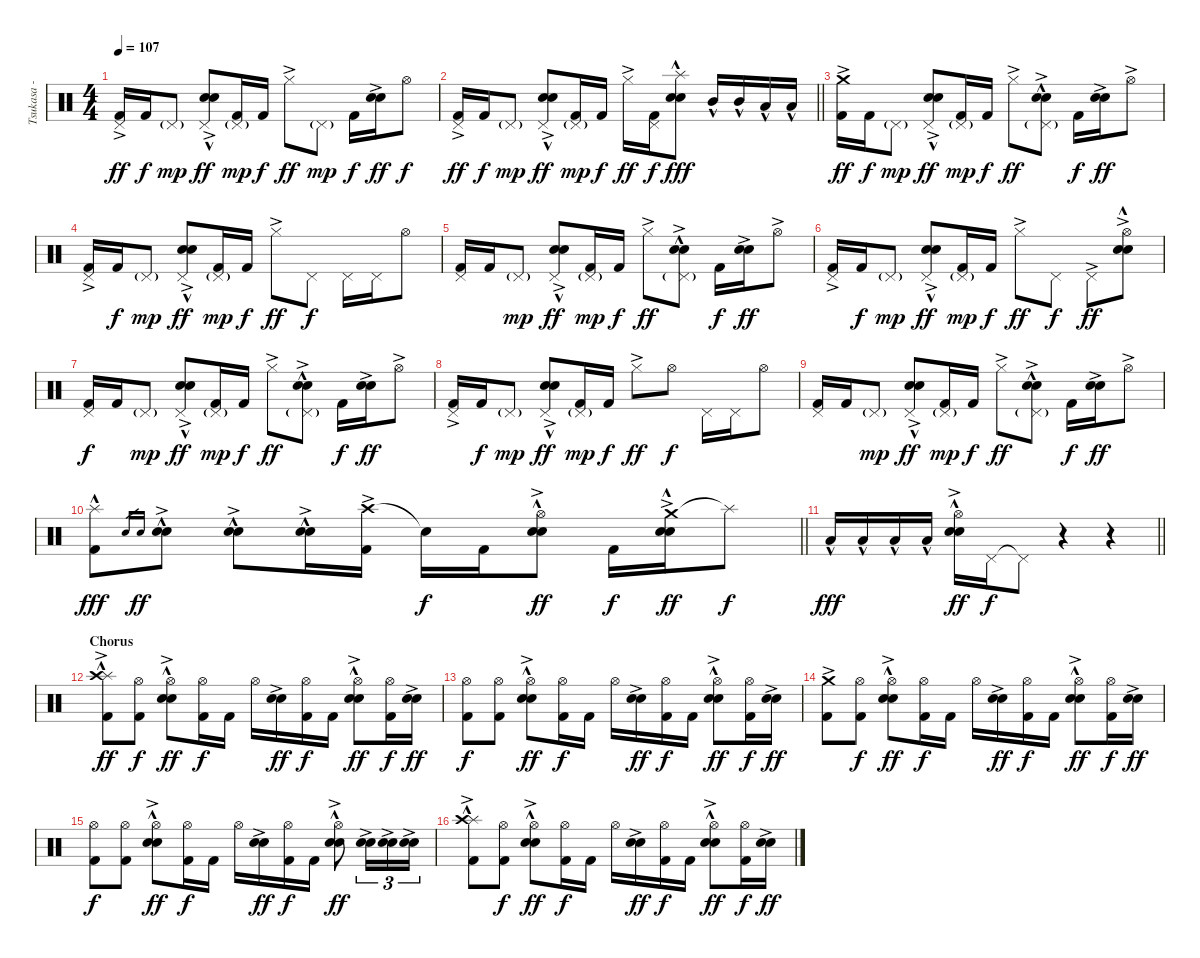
\track ("Tsukasa - Drums" "Tsukasa - ") {instrument percussion}
\staff {score}
\articulation defaults
\ts (4 4)
\tempo 107
\clef neutral
\ks c
("Pedal Hi-Hat (hit)"{ac} "Kick (hit) 2").16{dy ff} "Kick (hit) 2".16{dy f} "Pedal Hi-Hat (hit)"{g}.8{dy mp} ("Pedal Hi-Hat (hit)"{ac} "Electric Snare (hit)"{hac} "Snare (hit) 2"{ac}).8{dy ff} ("Pedal Hi-Hat (hit)"{g} "Kick (hit) 2").16{dy mp} "Kick (hit) 2".16{dy f} "Hi-Hat (closed)"{ac}.8{dy ff} "Pedal Hi-Hat (hit)"{g}.8{dy mp} "Kick (hit) 2".16{dy f} ("Electric Snare (hit)"{ac} "Snare (hit) 2"{ac}).16{dy ff} "Hi-Hat (open)".8{dy f} |
\barLineRight lightlight
("Pedal Hi-Hat (hit)"{ac} "Kick (hit) 2").16{dy ff} "Kick (hit) 2".16{dy f} "Pedal Hi-Hat (hit)"{g}.8{dy mp} ("Pedal Hi-Hat (hit)"{ac} "Electric Snare (hit)"{hac} "Snare (hit) 2"{ac}).8{dy ff} ("Pedal Hi-Hat (hit)"{g} "Kick (hit) 2").16{dy mp} "Kick (hit) 2".16{dy f} "Hi-Hat (closed)"{ac}.16{dy ff} ("Pedal Hi-Hat (hit)" "Kick (hit) 2").16{dy f} ("Splash (hit)"{hac} "Electric Snare (hit)" "Snare (hit) 2").8{dy fff} "Mid Tom (hit)"{hac}.16 "Mid Tom (hit)"{hac}.16 "Low Tom (hit)"{hac}.16 "Low Tom (hit)"{hac}.16 |
\section ("" "")
("Crash medium (hit)"{ac} "Kick (hit) 2").16{dy ff} "Kick (hit) 2".16{dy f} "Pedal Hi-Hat (hit)"{g}.8{dy mp} ("Pedal Hi-Hat (hit)"{ac} "Electric Snare (hit)"{hac} "Snare (hit) 2"{ac}).8{dy ff} ("Pedal Hi-Hat (hit)"{g} "Kick (hit) 2").16{dy mp} "Kick (hit) 2".16{dy f} "Hi-Hat (closed)"{ac}.8{dy ff} ("Pedal Hi-Hat (hit)"{g} "Electric Snare (hit)"{hac} "Snare (hit) 2"{ac}).8 "Kick (hit) 2".16{dy f} ("Electric Snare (hit)"{ac} "Snare (hit) 2"{ac}).16{dy ff} "Hi-Hat (open)"{ac}.8 |
("Pedal Hi-Hat (hit)"{ac} "Kick (hit) 2").16 "Kick (hit) 2".16{dy f} "Pedal Hi-Hat (hit)"{g}.8{dy mp} ("Pedal Hi-Hat (hit)"{ac} "Electric Snare (hit)"{hac} "Snare (hit) 2"{ac}).8{dy ff} ("Pedal Hi-Hat (hit)"{g} "Kick (hit) 2").16{dy mp} "Kick (hit) 2".16{dy f} "Hi-Hat (closed)"{ac}.8{dy ff} "Pedal Hi-Hat (hit)".8{dy f} "Pedal Hi-Hat (hit)".16 "Pedal Hi-Hat (hit)".16 "Hi-Hat (open)".8 |
("Pedal Hi-Hat (hit)" "Kick (hit) 2").16 "Kick (hit) 2".16 "Pedal Hi-Hat (hit)"{g}.8{dy mp} ("Pedal Hi-Hat (hit)"{ac} "Electric Snare (hit)"{hac} "Snare (hit) 2"{ac}).8{dy ff} ("Pedal Hi-Hat (hit)"{g} "Kick (hit) 2").16{dy mp} "Kick (hit) 2".16{dy f} "Hi-Hat (closed)"{ac}.8{dy ff} ("Pedal Hi-Hat (hit)"{g} "Electric Snare (hit)"{hac} "Snare (hit) 2"{ac}).8 "Kick (hit) 2".16{dy f} ("Electric Snare (hit)"{ac} "Snare (hit) 2"{ac}).16{dy ff} "Hi-Hat (open)"{ac}.8 |
("Pedal Hi-Hat (hit)"{ac} "Kick (hit) 2").16 "Kick (hit) 2".16{dy f} "Pedal Hi-Hat (hit)"{g}.8{dy mp} ("Pedal Hi-Hat (hit)"{ac} "Electric Snare (hit)"{hac} "Snare (hit) 2"{ac}).8{dy ff} ("Pedal Hi-Hat (hit)"{g} "Kick (hit) 2").16{dy mp} "Kick (hit) 2".16{dy f} "Hi-Hat (closed)"{ac}.8{dy ff} "Pedal Hi-Hat (hit)".8{dy f} "Pedal Hi-Hat (hit)"{ac}.8{dy ff} ("Hi-Hat (open)"{ac} "Electric Snare (hit)"{hac} "Snare (hit) 2"{ac}).8 |
("Pedal Hi-Hat (hit)" "Kick (hit) 2").16{dy f} "Kick (hit) 2".16 "Pedal Hi-Hat (hit)"{g}.8{dy mp} ("Pedal Hi-Hat (hit)"{ac} "Electric Snare (hit)"{hac} "Snare (hit) 2"{ac}).8{dy ff} ("Pedal Hi-Hat (hit)"{g} "Kick (hit) 2").16{dy mp} "Kick (hit) 2".16{dy f} "Hi-Hat (closed)"{ac}.8{dy ff} ("Pedal Hi-Hat (hit)"{g} "Electric Snare (hit)"{hac} "Snare (hit) 2"{ac}).8 "Kick (hit) 2".16{dy f} ("Electric Snare (hit)"{ac} "Snare (hit) 2"{ac}).16{dy ff} "Hi-Hat (open)"{ac}.8 |
("Pedal Hi-Hat (hit)"{ac} "Kick (hit) 2").16 "Kick (hit) 2".16{dy f} "Pedal Hi-Hat (hit)"{g}.8{dy mp} ("Pedal Hi-Hat (hit)"{ac} "Electric Snare (hit)"{hac} "Snare (hit) 2"{ac}).8{dy ff} ("Pedal Hi-Hat (hit)"{g} "Kick (hit) 2").16{dy mp} "Kick (hit) 2".16{dy f} "Hi-Hat (closed)"{ac}.8{dy ff} "Hi-Hat (open)".8{dy f} "Pedal Hi-Hat (hit)".16 "Pedal Hi-Hat (hit)".16 "Hi-Hat (open)".8 |
("Pedal Hi-Hat (hit)" "Kick (hit) 2").16 "Kick (hit) 2".16 "Pedal Hi-Hat (hit)"{g}.8{dy mp} ("Pedal Hi-Hat (hit)"{ac} "Electric Snare (hit)"{hac} "Snare (hit) 2"{ac}).8{dy ff} ("Pedal Hi-Hat (hit)"{g} "Kick (hit) 2").16{dy mp} "Kick (hit) 2".16{dy f} "Hi-Hat (closed)"{ac}.8{dy ff} ("Pedal Hi-Hat (hit)"{g} "Electric Snare (hit)"{hac} "Snare (hit) 2"{ac}).8 "Kick (hit) 2".16{dy f} ("Electric Snare (hit)"{ac} "Snare (hit) 2"{ac}).16{dy ff} "Hi-Hat (open)"{ac}.8 |
\barLineRight lightlight
("Splash (hit)"{hac} "Kick (hit) 2").8{dy fff} "Electric Snare (hit)".16{gr} "Snare (hit) 2".16{gr dy ff} ("Electric Snare (hit)"{hac} "Snare (hit) 2"{ac}).8 ("Electric Snare (hit)"{hac} "Snare (hit) 2"{ac}).8 ("Electric Snare (hit)"{hac} "Snare (hit) 2"{ac}).16 ("Crash high (hit)"{ac} "Kick (hit) 2").16 "Snare (hit)"{t}.16{dy f} "Kick (hit) 2".16 ("Hi-Hat (open)" "Electric Snare (hit)"{hac} "Snare (hit) 2"{ac}).8{dy ff} "Kick (hit) 2".16{dy f} ("Crash medium (hit)"{ac} "Electric Snare (hit)"{hac} "Snare (hit) 2"{ac}).16{dy ff} "Splash (hit)"{t}.8{dy f} |
\barLineRight lightlight "Low Tom (hit)"{hac}.16{dy fff} "Low Tom (hit)"{hac}.16 "Low Floor Tom (hit)"{hac}.16 "Low Floor Tom (hit)"{hac}.16
("Hi-Hat (open)" "Electric Snare (hit)"{hac} "Snare (hit) 2"{ac}).16{dy ff} "Pedal Hi-Hat (hit)".16{dy f} "Pedal Hi-Hat (hit)"{t}.8 r.4 r.4 |
\section ("" "Chorus")
("Splash (hit)"{hac} "Crash high (hit)"{ac} "Kick (hit) 2").8{dy ff} ("Hi-Hat (open)" "Kick (hit) 2").8{dy f} ("Hi-Hat (open)" "Electric Snare (hit)"{hac} "Snare (hit) 2"{ac}).8{dy ff} ("Hi-Hat (open)" "Kick (hit) 2").16{dy f} "Kick (hit) 2".16 "Hi-Hat (open)".16 ("Electric Snare (hit)"{ac} "Snare (hit) 2").16{dy ff} ("Hi-Hat (open)" "Kick (hit) 2").16{dy f} "Kick (hit) 2".16 ("Hi-Hat (open)" "Electric Snare (hit)"{hac} "Snare (hit) 2"{ac}).8{dy ff} ("Hi-Hat (open)" "Kick (hit) 2").16{dy f} ("Electric Snare (hit)"{ac} "Snare (hit) 2").16{dy ff} |
("Hi-Hat (open)" "Kick (hit) 2").8{dy f} ("Hi-Hat (open)" "Kick (hit) 2").8 ("Hi-Hat (open)" "Electric Snare (hit)"{hac} "Snare (hit) 2"{ac}).8{dy ff} ("Hi-Hat (open)" "Kick (hit) 2").16{dy f} "Kick (hit) 2".16 "Hi-Hat (open)".16 ("Electric Snare (hit)"{ac} "Snare (hit) 2").16{dy ff} ("Hi-Hat (open)" "Kick (hit) 2").16{dy f} "Kick (hit) 2".16 ("Hi-Hat (open)" "Electric Snare (hit)"{hac} "Snare (hit) 2"{ac}).8{dy ff} ("Hi-Hat (open)" "Kick (hit) 2").16{dy f} ("Electric Snare (hit)"{ac} "Snare (hit) 2").16{dy ff} |
("Crash medium (hit)"{ac} "Kick (hit) 2").8 ("Hi-Hat (open)" "Kick (hit) 2").8{dy f} ("Hi-Hat (open)" "Electric Snare (hit)"{hac} "Snare (hit) 2"{ac}).8{dy ff} ("Hi-Hat (open)" "Kick (hit) 2").16{dy f} "Kick (hit) 2".16 "Hi-Hat (open)".16 ("Electric Snare (hit)"{ac} "Snare (hit) 2").16{dy ff} ("Hi-Hat (open)" "Kick (hit) 2").16{dy f} "Kick (hit) 2".16 ("Hi-Hat (open)" "Electric Snare (hit)"{hac} "Snare (hit) 2"{ac}).8{dy ff} ("Hi-Hat (open)" "Kick (hit) 2").16{dy f} ("Electric Snare (hit)"{ac} "Snare (hit) 2").16{dy ff} |
("Hi-Hat (open)" "Kick (hit) 2").8{dy f} ("Hi-Hat (open)" "Kick (hit) 2").8 ("Hi-Hat (open)" "Electric Snare (hit)"{hac} "Snare (hit) 2"{ac}).8{dy ff} ("Hi-Hat (open)" "Kick (hit) 2").16{dy f} "Kick (hit) 2".16 "Hi-Hat (open)".16 ("Electric Snare (hit)"{ac} "Snare (hit) 2").16{dy ff} ("Hi-Hat (open)" "Kick (hit) 2").16{dy f} "Kick (hit) 2".16 ("Hi-Hat (open)" "Electric Snare (hit)"{hac} "Snare (hit) 2"{ac}).8{dy ff} ("Electric Snare (hit)"{ac} "Snare (hit) 2"{ac}).16{tu (3 2)} ("Electric Snare (hit)"{ac} "Snare (hit) 2"{ac}).16{tu (3 2)} ("Electric Snare (hit)"{ac} "Snare (hit) 2"{ac}).16{tu (3 2)} |
("Splash (hit)"{hac} "Crash high (hit)"{ac} "Kick (hit) 2").8 ("Hi-Hat (open)" "Kick (hit) 2").8{dy f} ("Hi-Hat (open)" "Electric Snare (hit)"{hac} "Snare (hit) 2"{ac}).8{dy ff} ("Hi-Hat (open)" "Kick (hit) 2").16{dy f} "Kick (hit) 2".16 "Hi-Hat (open)".16 ("Electric Snare (hit)"{ac} "Snare (hit) 2").16{dy ff} ("Hi-Hat (open)" "Kick (hit) 2").16{dy f} "Kick (hit) 2".16 ("Hi-Hat (open)" "Electric Snare (hit)"{hac} "Snare (hit) 2"{ac}).8{dy ff} ("Hi-Hat (open)" "Kick (hit) 2").16{dy f} ("Electric Snare (hit)"{ac} "Snare (hit) 2").16{dy ff}
